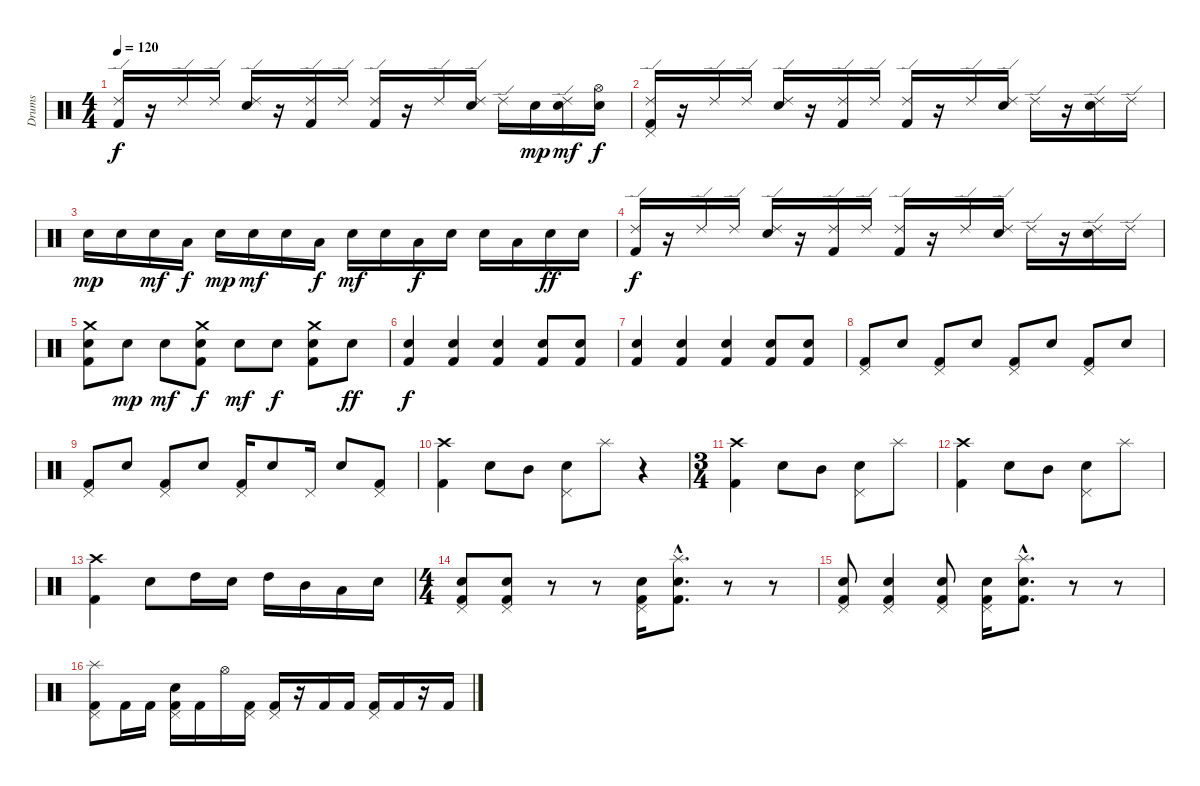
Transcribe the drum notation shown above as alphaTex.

\track ("Drums" "Drums") {instrument percussion}
\staff {score}
\articulation defaults
\ts (4 4)
\tempo 120
\clef neutral
\ks c
("Ride (edge) 2" "Kick (hit) 2").16{dy f} r.16 "Ride (edge) 2".16 "Ride (edge) 2".16 ("Ride (edge) 2" "Electric Snare (hit)").16 r.16 ("Ride (edge) 2" "Kick (hit) 2").16 "Ride (edge) 2".16 ("Ride (edge) 2" "Kick (hit) 2").16 r.16 "Ride (edge) 2".16 ("Ride (edge) 2" "Electric Snare (hit)").16 "Ride (edge) 2".16 "Electric Snare (hit)".16{dy mp} ("Ride (edge) 2" "Electric Snare (hit)").16{dy mf} ("Hi-Hat (open)" "Electric Snare (hit)").16{dy f} |
("Ride (edge) 2" "Pedal Hi-Hat (hit)" "Kick (hit) 2").16 r.16 "Ride (edge) 2".16 "Ride (edge) 2".16 ("Ride (edge) 2" "Electric Snare (hit)").16 r.16 ("Ride (edge) 2" "Kick (hit) 2").16 "Ride (edge) 2".16 ("Ride (edge) 2" "Kick (hit) 2").16 r.16 "Ride (edge) 2".16 ("Ride (edge) 2" "Electric Snare (hit)").16 "Ride (edge) 2".16 r.16 ("Ride (edge) 2" "Electric Snare (hit)").16 "Ride (edge) 2".16 |
"Electric Snare (hit)".16{dy mp} "Electric Snare (hit)".16 "Electric Snare (hit)".16{dy mf} "Low Floor Tom (hit)".16{dy f} "Electric Snare (hit)".16{dy mp} "Electric Snare (hit)".16{dy mf} "Electric Snare (hit)".16 "Low Floor Tom (hit)".16{dy f} "Electric Snare (hit)".16{dy mf} "Electric Snare (hit)".16 "Low Floor Tom (hit)".16{dy f} "Electric Snare (hit)".16 "Electric Snare (hit)".16 "Low Floor Tom (hit)".16 "Electric Snare (hit)".16{dy ff} "Electric Snare (hit)".16 |
("Ride (edge) 2" "Kick (hit) 2").16{dy f} r.16 "Ride (edge) 2".16 "Ride (edge) 2".16 ("Ride (edge) 2" "Electric Snare (hit)").16 r.16 ("Ride (edge) 2" "Kick (hit) 2").16 "Ride (edge) 2".16 ("Ride (edge) 2" "Kick (hit) 2").16 r.16 "Ride (edge) 2".16 ("Ride (edge) 2" "Electric Snare (hit)").16 "Ride (edge) 2".16 r.16 ("Ride (edge) 2" "Electric Snare (hit)").16 "Ride (edge) 2".16 |
("Crash medium (hit)" "Electric Snare (hit)" "Kick (hit) 2").8 "Electric Snare (hit)".8{dy mp} "Electric Snare (hit)".8{dy mf} ("Crash medium (hit)" "Electric Snare (hit)" "Kick (hit) 2").8{dy f} "Electric Snare (hit)".8{dy mf} "Electric Snare (hit)".8{dy f} ("Crash medium (hit)" "Electric Snare (hit)" "Kick (hit) 2").8 "Electric Snare (hit)".8{dy ff} |
("Electric Snare (hit)" "Kick (hit) 2").4{dy f} ("Electric Snare (hit)" "Kick (hit) 2").4 ("Electric Snare (hit)" "Kick (hit) 2").4 ("Electric Snare (hit)" "Kick (hit) 2").8 ("Electric Snare (hit)" "Kick (hit) 2").8 |
("Electric Snare (hit)" "Kick (hit) 2").4 ("Electric Snare (hit)" "Kick (hit) 2").4 ("Electric Snare (hit)" "Kick (hit) 2").4 ("Electric Snare (hit)" "Kick (hit) 2").8 ("Electric Snare (hit)" "Kick (hit) 2").8 |
("Pedal Hi-Hat (hit)" "Kick (hit) 2").8 "Electric Snare (hit)".8 ("Pedal Hi-Hat (hit)" "Kick (hit) 2").8 "Electric Snare (hit)".8 ("Pedal Hi-Hat (hit)" "Kick (hit) 2").8 "Electric Snare (hit)".8 ("Pedal Hi-Hat (hit)" "Kick (hit) 2").8 "Electric Snare (hit)".8 |
("Pedal Hi-Hat (hit)" "Kick (hit) 2").8 "Electric Snare (hit)".8 ("Pedal Hi-Hat (hit)" "Kick (hit) 2").8 "Electric Snare (hit)".8 ("Pedal Hi-Hat (hit)" "Kick (hit) 2").16 "Electric Snare (hit)".8 "Pedal Hi-Hat (hit)".16 "Electric Snare (hit)".8 ("Pedal Hi-Hat (hit)" "Kick (hit) 2").8 |
("Crash high (hit)" "Kick (hit) 2").4 "Electric Snare (hit)".8 "Mid Tom (hit)".8 ("Pedal Hi-Hat (hit)" "Electric Snare (hit)").8 "Splash (hit)".8 r.4 |
\ts (3 4)
("Crash high (hit)" "Kick (hit) 2").4 "Electric Snare (hit)".8 "Mid Tom (hit)".8 ("Pedal Hi-Hat (hit)" "Electric Snare (hit)").8 "Splash (hit)".8 |
("Crash high (hit)" "Kick (hit) 2").4 "Electric Snare (hit)".8 "Mid Tom (hit)".8 ("Pedal Hi-Hat (hit)" "Electric Snare (hit)").8 "Splash (hit)".8 |
("Crash high (hit)" "Kick (hit) 2").4 "Electric Snare (hit)".8 "High Tom (hit)".16 "Electric Snare (hit)".16 "High Tom (hit)".16 "Mid Tom (hit)".16 "Low Tom (hit)".16 "Electric Snare (hit)".16 |
\ts (4 4)
("Pedal Hi-Hat (hit)" "Electric Snare (hit)" "Kick (hit) 2").8 ("Pedal Hi-Hat (hit)" "Electric Snare (hit)" "Kick (hit) 2").8 r.8 r.8 ("Pedal Hi-Hat (hit)" "Electric Snare (hit)" "Kick (hit) 2").16 ("Splash (hit)"{hac} "Electric Snare (hit)"{hac} "Kick (hit) 2"{hac}).8{d} r.8 r.8 |
("Pedal Hi-Hat (hit)" "Electric Snare (hit)" "Kick (hit) 2").8 ("Pedal Hi-Hat (hit)" "Electric Snare (hit)" "Kick (hit) 2").4 ("Pedal Hi-Hat (hit)" "Electric Snare (hit)" "Kick (hit) 2").8 ("Pedal Hi-Hat (hit)" "Electric Snare (hit)" "Kick (hit) 2").16 ("Splash (hit)"{hac} "Electric Snare (hit)"{hac} "Kick (hit) 2"{hac}).8{d} r.8 r.8 |
("Splash (hit)" "Pedal Hi-Hat (hit)" "Kick (hit) 2").8 "Kick (hit) 2".16 "Kick (hit) 2".16 ("Pedal Hi-Hat (hit)" "Electric Snare (hit)" "Kick (hit) 2").16 "Kick (hit) 2".16 "Hi-Hat (open)".16 ("Pedal Hi-Hat (hit)" "Kick (hit) 2").16 ("Pedal Hi-Hat (hit)" "Kick (hit) 2").16 r.16 "Kick (hit) 2".16 "Kick (hit) 2".16 ("Pedal Hi-Hat (hit)" "Kick (hit) 2").16 "Kick (hit) 2".16 r.16 "Kick (hit) 2".16
